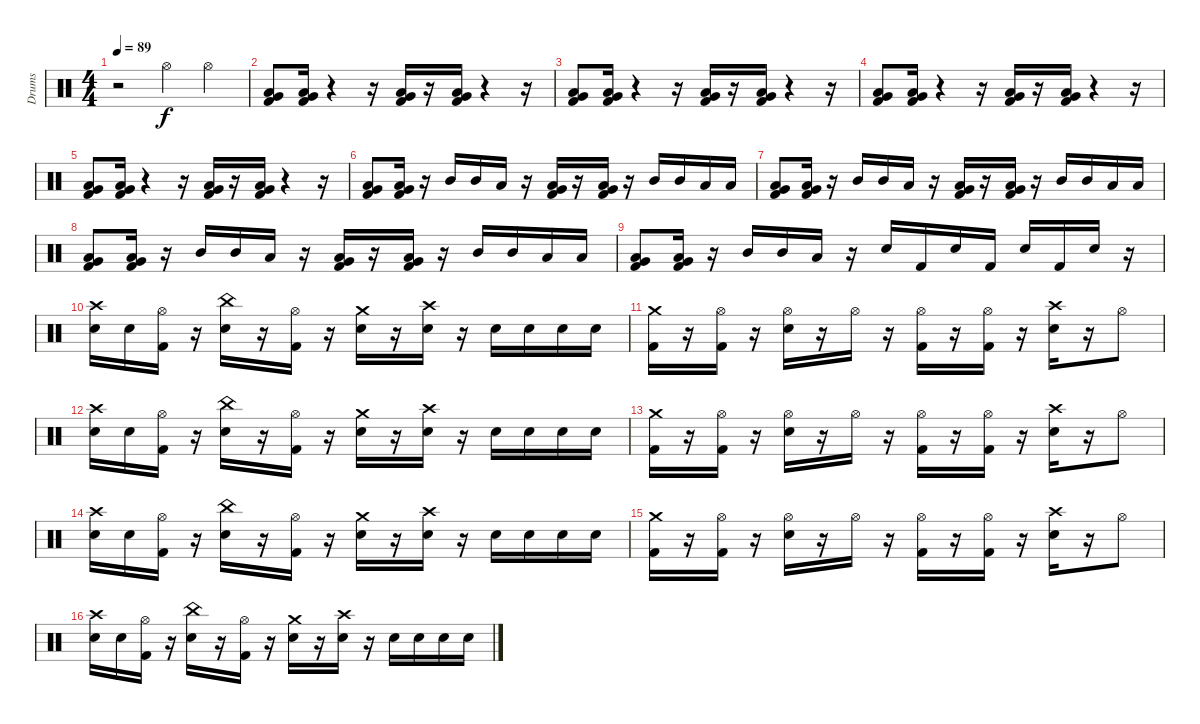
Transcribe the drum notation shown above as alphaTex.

\track ("Drums" "Drums") {instrument percussion}
\staff {score}
\articulation defaults
\ts (4 4)
\tempo 89
\clef neutral
\ks c
r.2{dy f} "Hi-Hat (open)".4 "Hi-Hat (open)".4 |
("Very Low Tom (hit)" "Low Tom (hit)" "Kick (hit) 2").8 ("Low Tom (hit)" "Very Low Tom (hit)" "Kick (hit) 2").16 r.4 r.16 ("Low Tom (hit)" "Very Low Tom (hit)" "Kick (hit) 2").16 r.16 ("Low Tom (hit)" "Very Low Tom (hit)" "Kick (hit) 2").16 r.4 r.16 |
("Very Low Tom (hit)" "Low Tom (hit)" "Kick (hit) 2").8 ("Low Tom (hit)" "Very Low Tom (hit)" "Kick (hit) 2").16 r.4 r.16 ("Low Tom (hit)" "Very Low Tom (hit)" "Kick (hit) 2").16 r.16 ("Low Tom (hit)" "Very Low Tom (hit)" "Kick (hit) 2").16 r.4 r.16 |
("Very Low Tom (hit)" "Low Tom (hit)" "Kick (hit) 2").8 ("Low Tom (hit)" "Very Low Tom (hit)" "Kick (hit) 2").16 r.4 r.16 ("Low Tom (hit)" "Very Low Tom (hit)" "Kick (hit) 2").16 r.16 ("Low Tom (hit)" "Very Low Tom (hit)" "Kick (hit) 2").16 r.4 r.16 |
("Very Low Tom (hit)" "Low Tom (hit)" "Kick (hit) 2").8 ("Low Tom (hit)" "Very Low Tom (hit)" "Kick (hit) 2").16 r.4 r.16 ("Low Tom (hit)" "Very Low Tom (hit)" "Kick (hit) 2").16 r.16 ("Low Tom (hit)" "Very Low Tom (hit)" "Kick (hit) 2").16 r.4 r.16 |
("Very Low Tom (hit)" "Low Tom (hit)" "Kick (hit) 2").8 ("Low Tom (hit)" "Very Low Tom (hit)" "Kick (hit) 2").16 r.16 "Mid Tom (hit)".16 "Mid Tom (hit)".16 "Low Tom (hit)".16 r.16 ("Low Tom (hit)" "Very Low Tom (hit)" "Kick (hit) 2").16 r.16 ("Low Tom (hit)" "Very Low Tom (hit)" "Kick (hit) 2").16 r.16 "Mid Tom (hit)".16 "Mid Tom (hit)".16 "Low Tom (hit)".16 "Low Tom (hit)".16 |
("Low Tom (hit)" "Kick (hit) 2" "Very Low Tom (hit)").8 ("Low Tom (hit)" "Very Low Tom (hit)" "Kick (hit) 2").16 r.16 "Mid Tom (hit)".16 "Mid Tom (hit)".16 "Low Tom (hit)".16 r.16 ("Low Tom (hit)" "Very Low Tom (hit)" "Kick (hit) 2").16 r.16 ("Low Tom (hit)" "Very Low Tom (hit)" "Kick (hit) 2").16 r.16 "Mid Tom (hit)".16 "Mid Tom (hit)".16 "Low Tom (hit)".16 "Low Tom (hit)".16 |
("Very Low Tom (hit)" "Low Tom (hit)" "Kick (hit) 2").8 ("Low Tom (hit)" "Very Low Tom (hit)" "Kick (hit) 2").16 r.16 "Mid Tom (hit)".16 "Mid Tom (hit)".16 "Low Tom (hit)".16 r.16 ("Low Tom (hit)" "Very Low Tom (hit)" "Kick (hit) 2").16 r.16 ("Low Tom (hit)" "Very Low Tom (hit)" "Kick (hit) 2").16 r.16 "Mid Tom (hit)".16 "Mid Tom (hit)".16 "Low Tom (hit)".16 "Low Tom (hit)".16 |
("Very Low Tom (hit)" "Low Tom (hit)" "Kick (hit) 2").8 ("Low Tom (hit)" "Very Low Tom (hit)" "Kick (hit) 2").16 r.16 "Mid Tom (hit)".16 "Mid Tom (hit)".16 "Low Tom (hit)".16 r.16 "Snare (hit) 2".16 "Kick (hit) 2".16 "Snare (hit) 2".16 "Kick (hit) 2".16 "Snare (hit) 2".16 "Kick (hit) 2".16 "Snare (hit) 2".16 r.16 |
("Crash high (hit)" "Snare (hit) 2").16 "Snare (hit) 2".16 ("Hi-Hat (open)" "Kick (hit) 2").16 r.16 ("Snare (hit) 2" "China (hit)").16 r.16 ("Kick (hit) 2" "Hi-Hat (open)").16 r.16 ("Snare (hit) 2" "Crash medium (hit)").16 r.16 ("Crash high (hit)" "Snare (hit) 2").16 r.16 "Snare (hit) 2".16 "Snare (hit) 2".16 "Snare (hit) 2".16 "Snare (hit) 2".16 |
("Kick (hit) 2" "Crash medium (hit)").16 r.16 ("Kick (hit) 2" "Hi-Hat (open)").16 r.16 ("Snare (hit) 2" "Hi-Hat (open)").16 r.16 "Hi-Hat (open)".16 r.16 ("Hi-Hat (open)" "Kick (hit) 2").16 r.16 ("Kick (hit) 2" "Hi-Hat (open)").16 r.16 ("Snare (hit) 2" "Crash high (hit)").16 r.16 "Hi-Hat (open)".8 |
("Snare (hit) 2" "Crash high (hit)").16 "Snare (hit) 2".16 ("Hi-Hat (open)" "Kick (hit) 2").16 r.16 ("China (hit)" "Snare (hit) 2").16 r.16 ("Hi-Hat (open)" "Kick (hit) 2").16 r.16 ("Crash medium (hit)" "Snare (hit) 2").16 r.16 ("Crash high (hit)" "Snare (hit) 2").16 r.16 "Snare (hit) 2".16 "Snare (hit) 2".16 "Snare (hit) 2".16 "Snare (hit) 2".16 |
("Kick (hit) 2" "Crash medium (hit)").16 r.16 ("Hi-Hat (open)" "Kick (hit) 2").16 r.16 ("Hi-Hat (open)" "Snare (hit) 2").16 r.16 "Hi-Hat (open)".16 r.16 ("Hi-Hat (open)" "Kick (hit) 2").16 r.16 ("Hi-Hat (open)" "Kick (hit) 2").16 r.16 ("Crash high (hit)" "Snare (hit) 2").16 r.16 "Hi-Hat (open)".8 |
("Snare (hit) 2" "Crash high (hit)").16 "Snare (hit) 2".16 ("Hi-Hat (open)" "Kick (hit) 2").16 r.16 ("China (hit)" "Snare (hit) 2").16 r.16 ("Hi-Hat (open)" "Kick (hit) 2").16 r.16 ("Crash medium (hit)" "Snare (hit) 2").16 r.16 ("Crash high (hit)" "Snare (hit) 2").16 r.16 "Snare (hit) 2".16 "Snare (hit) 2".16 "Snare (hit) 2".16 "Snare (hit) 2".16 |
("Crash medium (hit)" "Kick (hit) 2").16 r.16 ("Hi-Hat (open)" "Kick (hit) 2").16 r.16 ("Hi-Hat (open)" "Snare (hit) 2").16 r.16 "Hi-Hat (open)".16 r.16 ("Kick (hit) 2" "Hi-Hat (open)").16 r.16 ("Hi-Hat (open)" "Kick (hit) 2").16 r.16 ("Crash high (hit)" "Snare (hit) 2").16 r.16 "Hi-Hat (open)".8 |
("Snare (hit) 2" "Crash high (hit)").16 "Snare (hit) 2".16 ("Hi-Hat (open)" "Kick (hit) 2").16 r.16 ("China (hit)" "Snare (hit) 2").16 r.16 ("Hi-Hat (open)" "Kick (hit) 2").16 r.16 ("Crash medium (hit)" "Snare (hit) 2").16 r.16 ("Crash high (hit)" "Snare (hit) 2").16 r.16 "Snare (hit) 2".16 "Snare (hit) 2".16 "Snare (hit) 2".16 "Snare (hit) 2".16
